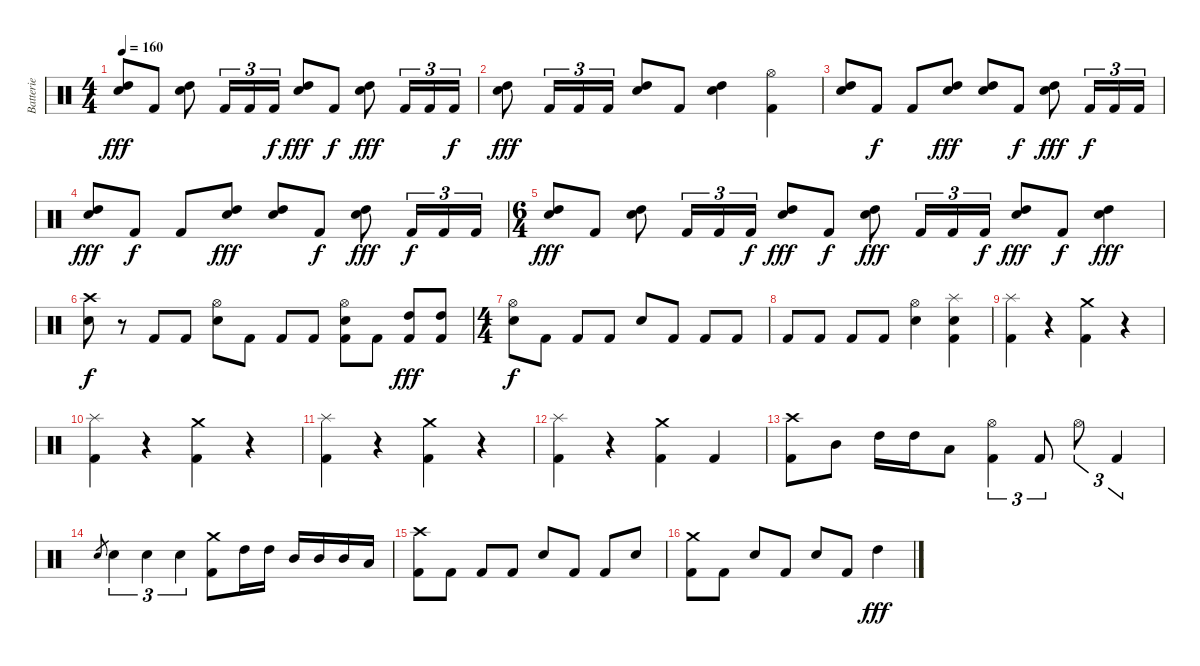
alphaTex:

\track ("Batterie" "Batterie") {instrument percussion}
\staff {score}
\articulation defaults
\ts (4 4)
\tempo 160
\clef neutral
\ks c
("High Tom (hit)" "Electric Snare (hit)").8{dy fff} "Kick (hit) 2".8 ("High Tom (hit)" "Electric Snare (hit)").8 "Kick (hit) 2".16{tu (3 2)} "Kick (hit) 2".16{tu (3 2)} "Kick (hit) 2".16{tu (3 2) dy f} ("High Tom (hit)" "Electric Snare (hit)").8{dy fff} "Kick (hit) 2".8{dy f} ("High Tom (hit)" "Electric Snare (hit)").8{dy fff} "Kick (hit) 2".16{tu (3 2)} "Kick (hit) 2".16{tu (3 2)} "Kick (hit) 2".16{tu (3 2) dy f} |
("High Tom (hit)" "Electric Snare (hit)").8{dy fff} "Kick (hit) 2".16{tu (3 2)} "Kick (hit) 2".16{tu (3 2)} "Kick (hit) 2".16{tu (3 2)} ("High Tom (hit)" "Electric Snare (hit)").8 "Kick (hit) 2".8 ("High Tom (hit)" "Electric Snare (hit)").4 ("Hi-Hat (open)" "Kick (hit) 2").4 |
("High Tom (hit)" "Electric Snare (hit)").8 "Kick (hit) 2".8{dy f} "Kick (hit) 2".8 ("High Tom (hit)" "Electric Snare (hit)").8{dy fff} ("High Tom (hit)" "Electric Snare (hit)").8 "Kick (hit) 2".8{dy f} ("High Tom (hit)" "Electric Snare (hit)").8{dy fff} "Kick (hit) 2".16{tu (3 2) dy f} "Kick (hit) 2".16{tu (3 2)} "Kick (hit) 2".16{tu (3 2)} |
("High Tom (hit)" "Electric Snare (hit)").8{dy fff} "Kick (hit) 2".8{dy f} "Kick (hit) 2".8 ("High Tom (hit)" "Electric Snare (hit)").8{dy fff} ("High Tom (hit)" "Electric Snare (hit)").8 "Kick (hit) 2".8{dy f} ("High Tom (hit)" "Electric Snare (hit)").8{dy fff} "Kick (hit) 2".16{tu (3 2) dy f} "Kick (hit) 2".16{tu (3 2)} "Kick (hit) 2".16{tu (3 2)} |
\ts (6 4)
("High Tom (hit)" "Electric Snare (hit)").8{dy fff} "Kick (hit) 2".8 ("High Tom (hit)" "Electric Snare (hit)").8 "Kick (hit) 2".16{tu (3 2)} "Kick (hit) 2".16{tu (3 2)} "Kick (hit) 2".16{tu (3 2) dy f} ("High Tom (hit)" "Electric Snare (hit)").8{dy fff} "Kick (hit) 2".8{dy f} ("High Tom (hit)" "Electric Snare (hit)").8{dy fff} "Kick (hit) 2".16{tu (3 2)} "Kick (hit) 2".16{tu (3 2)} "Kick (hit) 2".16{tu (3 2) dy f} ("High Tom (hit)" "Electric Snare (hit)").8{dy fff} "Kick (hit) 2".8{dy f} ("High Tom (hit)" "Electric Snare (hit)").4{dy fff} |
("Crash high (hit)" "Electric Snare (hit)").8{dy f} r.8 "Kick (hit) 2".8 "Kick (hit) 2".8 ("Hi-Hat (open)" "Electric Snare (hit)").8 "Kick (hit) 2".8 "Kick (hit) 2".8 "Kick (hit) 2".8 ("Hi-Hat (open)" "Electric Snare (hit)" "Kick (hit) 2").8 "Kick (hit) 2".8 ("High Tom (hit)" "Kick (hit) 2").8{dy fff} ("High Tom (hit)" "Kick (hit) 2").8 |
\ts (4 4)
("Hi-Hat (open)" "Electric Snare (hit)").8{dy f} "Kick (hit) 2".8 "Kick (hit) 2".8 "Kick (hit) 2".8 "Electric Snare (hit)".8 "Kick (hit) 2".8 "Kick (hit) 2".8 "Kick (hit) 2".8 |
"Kick (hit) 2".8 "Kick (hit) 2".8 "Kick (hit) 2".8 "Kick (hit) 2".8 ("Hi-Hat (open)" "Electric Snare (hit)").4 ("Splash (hit)" "Electric Snare (hit)" "Kick (hit) 2").4 |
("Splash (hit)" "Kick (hit) 2").4 r.4 ("Crash medium (hit)" "Kick (hit) 2").4 r.4 |
("Splash (hit)" "Kick (hit) 2").4 r.4 ("Crash medium (hit)" "Kick (hit) 2").4 r.4 |
("Splash (hit)" "Kick (hit) 2").4 r.4 ("Crash medium (hit)" "Kick (hit) 2").4 r.4 |
("Splash (hit)" "Kick (hit) 2").4 r.4 ("Crash medium (hit)" "Kick (hit) 2").4 "Kick (hit) 2".4 |
("Crash high (hit)" "Kick (hit) 2").8 "Mid Tom (hit)".8 "High Tom (hit)".16 "High Tom (hit)".16 "Low Tom (hit)".8 ("Hi-Hat (open)" "Kick (hit) 2").4{tu (3 2)} "Kick (hit) 2".8{tu (3 2)} "Hi-Hat (open)".8{tu (3 2)} "Kick (hit) 2".4{tu (3 2)} |
"Electric Snare (hit)".8{gr} "Electric Snare (hit)".4{tu (3 2)} "Electric Snare (hit)".4{tu (3 2)} "Electric Snare (hit)".4{tu (3 2)} ("Crash medium (hit)" "Kick (hit) 2").8 "High Tom (hit)".16 "High Tom (hit)".16 "Mid Tom (hit)".16 "Mid Tom (hit)".16 "Mid Tom (hit)".16 "Low Tom (hit)".16 |
("Crash high (hit)" "Kick (hit) 2").8 "Kick (hit) 2".8 "Kick (hit) 2".8 "Kick (hit) 2".8 "Electric Snare (hit)".8 "Kick (hit) 2".8 "Kick (hit) 2".8 "Electric Snare (hit)".8 |
("Crash medium (hit)" "Kick (hit) 2").8 "Kick (hit) 2".8 "Electric Snare (hit)".8 "Kick (hit) 2".8 "Electric Snare (hit)".8 "Kick (hit) 2".8 "High Tom (hit)".4{dy fff}
